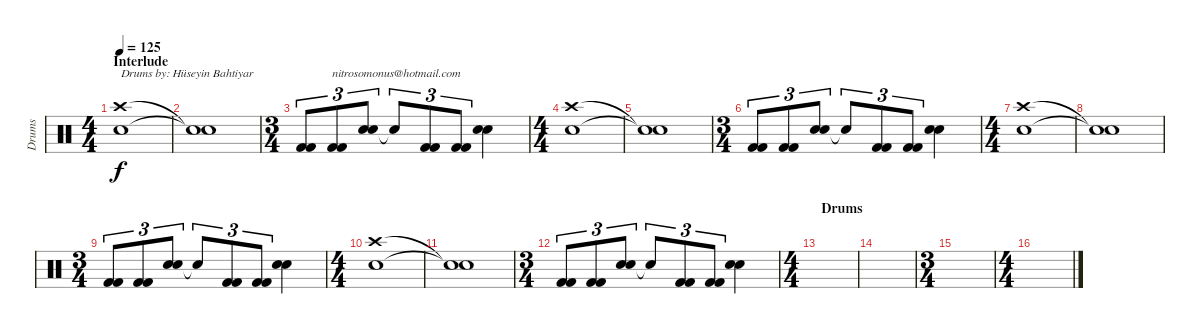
\track ("Drums" "Drums") {instrument percussion}
\staff {score}
\articulation defaults
\ts (4 4)
\section ("" "Interlude")
\tempo 125
\clef neutral
\ks c
("Snare (hit) 2" "Crash high (hit)").1{txt "Drums by: Hüseyin Bahtiyar " dy f} |
("Snare (hit)"{t} "Snare (hit)"{t}).1 |
\ts (3 4)
("Kick (hit) 2" "Kick (hit) 2").8{tu (3 2)} ("Kick (hit) 2" "Kick (hit) 2").8{tu (3 2) txt "nitrosomonus@hotmail.com"} ("Electric Snare (hit)" "Snare (hit) 2").8{tu (3 2)} "Snare (hit)"{t}.8{tu (3 2)} ("Kick (hit) 2" "Kick (hit) 2").8{tu (3 2)} ("Kick (hit) 2" "Kick (hit) 2").8{tu (3 2)} ("Electric Snare (hit)" "Snare (hit) 2").4 |
\ts (4 4)
("Snare (hit) 2" "Crash high (hit)").1 |
("Snare (hit)"{t} "Snare (hit)"{t}).1 |
\ts (3 4)
("Kick (hit) 2" "Kick (hit) 2").8{tu (3 2)} ("Kick (hit) 2" "Kick (hit) 2").8{tu (3 2)} ("Electric Snare (hit)" "Snare (hit) 2").8{tu (3 2)} "Snare (hit)"{t}.8{tu (3 2)} ("Kick (hit) 2" "Kick (hit) 2").8{tu (3 2)} ("Kick (hit) 2" "Kick (hit) 2").8{tu (3 2)} ("Electric Snare (hit)" "Snare (hit) 2").4 |
\ts (4 4)
("Snare (hit) 2" "Crash high (hit)").1 |
("Snare (hit)"{t} "Snare (hit)"{t}).1 |
\ts (3 4)
("Kick (hit) 2" "Kick (hit) 2").8{tu (3 2)} ("Kick (hit) 2" "Kick (hit) 2").8{tu (3 2)} ("Electric Snare (hit)" "Snare (hit) 2").8{tu (3 2)} "Snare (hit)"{t}.8{tu (3 2)} ("Kick (hit) 2" "Kick (hit) 2").8{tu (3 2)} ("Kick (hit) 2" "Kick (hit) 2").8{tu (3 2)} ("Electric Snare (hit)" "Snare (hit) 2").4 |
\ts (4 4)
("Snare (hit) 2" "Crash high (hit)").1 |
("Snare (hit)"{t} "Snare (hit)"{t}).1 |
\ts (3 4)
("Kick (hit) 2" "Kick (hit) 2").8{tu (3 2)} ("Kick (hit) 2" "Kick (hit) 2").8{tu (3 2)} ("Electric Snare (hit)" "Snare (hit) 2").8{tu (3 2)} "Snare (hit)"{t}.8{tu (3 2)} ("Kick (hit) 2" "Kick (hit) 2").8{tu (3 2)} ("Kick (hit) 2" "Kick (hit) 2").8{tu (3 2)} ("Electric Snare (hit)" "Snare (hit) 2").4 |
\ts (4 4)
\section ("" "Drums")
|
|
\ts (3 4)
|
\ts (4 4)
